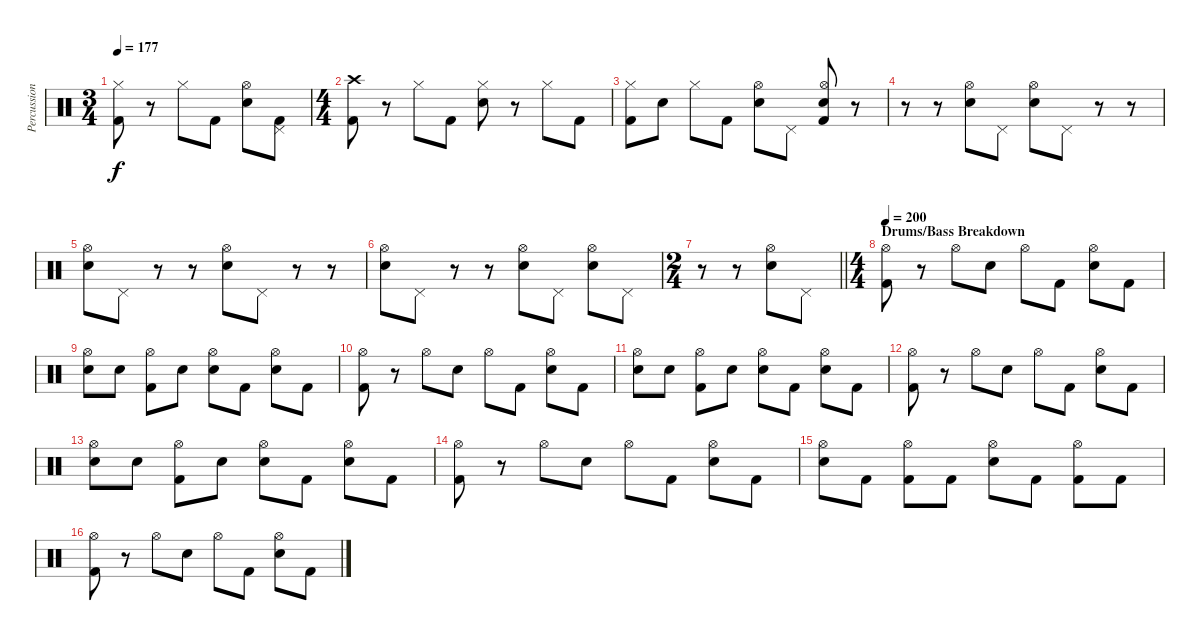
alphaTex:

\track ("Percussion" "Percussion") {instrument percussion}
\staff {score}
\articulation defaults
\ts (3 4)
\tempo 177
\clef neutral
\ks c
("Hi-Hat (closed)" "Kick (hit) 2").8{dy f} r.8 "Hi-Hat (closed)".8 "Kick (hit) 2".8 ("Hi-Hat (open)" "Electric Snare (hit)").8 ("Pedal Hi-Hat (hit)" "Kick (hit) 2").8 |
\ts (4 4)
("Crash high (hit)" "Kick (hit) 2").8 r.8 "Hi-Hat (closed)".8 "Kick (hit) 2".8 ("Hi-Hat (closed)" "Electric Snare (hit)").8 r.8 "Hi-Hat (closed)".8 "Kick (hit) 2".8 |
("Hi-Hat (closed)" "Kick (hit) 2").8 "Electric Snare (hit)".8 "Hi-Hat (closed)".8 "Kick (hit) 2".8 ("Hi-Hat (open)" "Electric Snare (hit)").8 "Pedal Hi-Hat (hit)".8 ("Hi-Hat (open)" "Electric Snare (hit)" "Kick (hit) 2").8 r.8 |
r.8 r.8 ("Hi-Hat (open)" "Electric Snare (hit)").8 "Pedal Hi-Hat (hit)".8 ("Hi-Hat (open)" "Electric Snare (hit)").8 "Pedal Hi-Hat (hit)".8 r.8 r.8 |
("Hi-Hat (open)" "Electric Snare (hit)").8 "Pedal Hi-Hat (hit)".8 r.8 r.8 ("Hi-Hat (open)" "Electric Snare (hit)").8 "Pedal Hi-Hat (hit)".8 r.8 r.8 |
("Hi-Hat (open)" "Electric Snare (hit)").8 "Pedal Hi-Hat (hit)".8 r.8 r.8 ("Hi-Hat (open)" "Electric Snare (hit)").8 "Pedal Hi-Hat (hit)".8 ("Hi-Hat (open)" "Electric Snare (hit)").8 "Pedal Hi-Hat (hit)".8 |
\ts (2 4)
\barLineRight lightlight
r.8 r.8 ("Hi-Hat (open)" "Electric Snare (hit)").8 "Pedal Hi-Hat (hit)".8 |
\ts (4 4)
\section ("" "Drums/Bass Breakdown")
\tempo 200
("Hi-Hat (open)" "Kick (hit) 2").8 r.8 "Hi-Hat (open)".8 "Electric Snare (hit)".8 "Hi-Hat (open)".8 "Kick (hit) 2".8 ("Hi-Hat (open)" "Electric Snare (hit)").8 "Kick (hit) 2".8 |
("Hi-Hat (open)" "Electric Snare (hit)").8 "Electric Snare (hit)".8 ("Hi-Hat (open)" "Kick (hit) 2").8 "Electric Snare (hit)".8 ("Hi-Hat (open)" "Electric Snare (hit)").8 "Kick (hit) 2".8 ("Hi-Hat (open)" "Electric Snare (hit)").8 "Kick (hit) 2".8 |
("Hi-Hat (open)" "Kick (hit) 2").8 r.8 "Hi-Hat (open)".8 "Electric Snare (hit)".8 "Hi-Hat (open)".8 "Kick (hit) 2".8 ("Hi-Hat (open)" "Electric Snare (hit)").8 "Kick (hit) 2".8 |
("Hi-Hat (open)" "Electric Snare (hit)").8 "Electric Snare (hit)".8 ("Hi-Hat (open)" "Kick (hit) 2").8 "Electric Snare (hit)".8 ("Hi-Hat (open)" "Electric Snare (hit)").8 "Kick (hit) 2".8 ("Hi-Hat (open)" "Electric Snare (hit)").8 "Kick (hit) 2".8 |
("Hi-Hat (open)" "Kick (hit) 2").8 r.8 "Hi-Hat (open)".8 "Electric Snare (hit)".8 "Hi-Hat (open)".8 "Kick (hit) 2".8 ("Hi-Hat (open)" "Electric Snare (hit)").8 "Kick (hit) 2".8 |
("Hi-Hat (open)" "Electric Snare (hit)").8 "Electric Snare (hit)".8 ("Hi-Hat (open)" "Kick (hit) 2").8 "Electric Snare (hit)".8 ("Hi-Hat (open)" "Electric Snare (hit)").8 "Kick (hit) 2".8 ("Hi-Hat (open)" "Electric Snare (hit)").8 "Kick (hit) 2".8 |
("Hi-Hat (open)" "Kick (hit) 2").8 r.8 "Hi-Hat (open)".8 "Electric Snare (hit)".8 "Hi-Hat (open)".8 "Kick (hit) 2".8 ("Hi-Hat (open)" "Electric Snare (hit)").8 "Kick (hit) 2".8 |
("Hi-Hat (open)" "Electric Snare (hit)").8 "Kick (hit) 2".8 ("Hi-Hat (open)" "Kick (hit) 2").8 "Kick (hit) 2".8 ("Hi-Hat (open)" "Electric Snare (hit)").8 "Kick (hit) 2".8 ("Hi-Hat (open)" "Kick (hit) 2").8 "Kick (hit) 2".8 |
("Hi-Hat (open)" "Kick (hit) 2").8 r.8 "Hi-Hat (open)".8 "Electric Snare (hit)".8 "Hi-Hat (open)".8 "Kick (hit) 2".8 ("Hi-Hat (open)" "Electric Snare (hit)").8 "Kick (hit) 2".8
